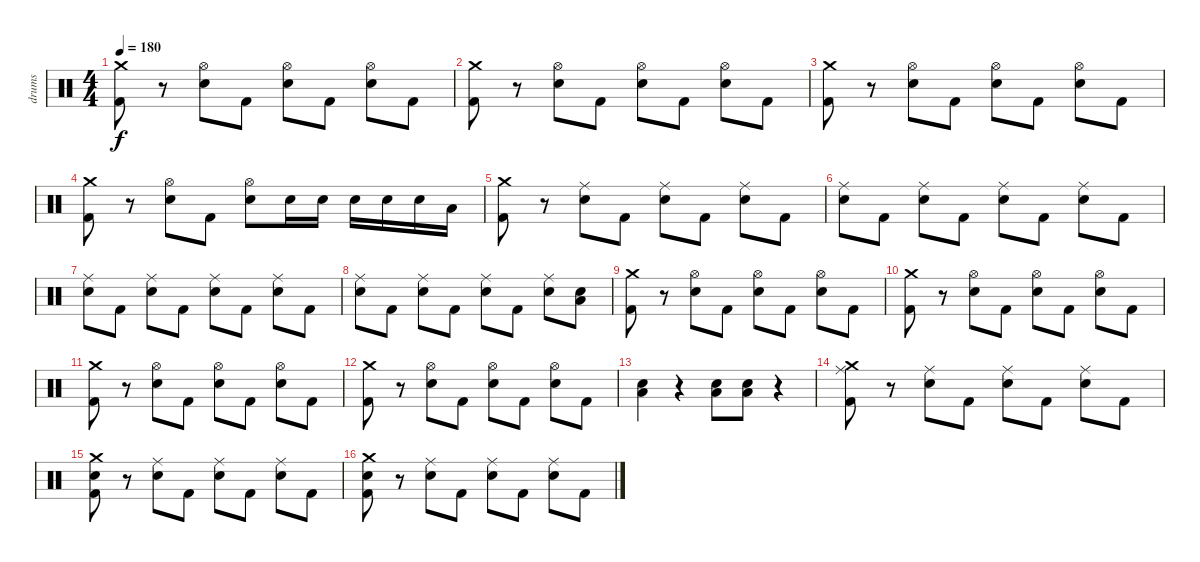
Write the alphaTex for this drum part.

\track ("drums" "drums") {instrument percussion}
\staff {score}
\articulation defaults
\ts (4 4)
\tempo 180
\clef neutral
\ks c
("Crash medium (hit)" "Kick (hit) 2").8{dy f} r.8 ("Hi-Hat (open)" "Snare (hit) 2").8 "Kick (hit) 2".8 ("Hi-Hat (open)" "Snare (hit) 2").8 "Kick (hit) 2".8 ("Hi-Hat (open)" "Snare (hit) 2").8 "Kick (hit) 2".8 |
("Crash medium (hit)" "Kick (hit) 2").8 r.8 ("Hi-Hat (open)" "Snare (hit) 2").8 "Kick (hit) 2".8 ("Hi-Hat (open)" "Snare (hit) 2").8 "Kick (hit) 2".8 ("Hi-Hat (open)" "Snare (hit) 2").8 "Kick (hit) 2".8 |
("Crash medium (hit)" "Kick (hit) 2").8 r.8 ("Hi-Hat (open)" "Snare (hit) 2").8 "Kick (hit) 2".8 ("Hi-Hat (open)" "Snare (hit) 2").8 "Kick (hit) 2".8 ("Hi-Hat (open)" "Snare (hit) 2").8 "Kick (hit) 2".8 |
("Crash medium (hit)" "Kick (hit) 2").8 r.8 ("Hi-Hat (open)" "Snare (hit) 2").8 "Kick (hit) 2".8 ("Hi-Hat (open)" "Snare (hit) 2").8 "Snare (hit) 2".16 "Snare (hit) 2".16 "Snare (hit) 2".16 "Snare (hit) 2".16 "Snare (hit) 2".16 "Low Tom (hit)".16 |
("Crash medium (hit)" "Kick (hit) 2").8 r.8 ("Ride (middle)" "Snare (hit) 2").8 "Kick (hit) 2".8 ("Ride (middle)" "Snare (hit) 2").8 "Kick (hit) 2".8 ("Ride (middle)" "Snare (hit) 2").8 "Kick (hit) 2".8 |
("Ride (middle)" "Snare (hit) 2").8 "Kick (hit) 2".8 ("Ride (middle)" "Snare (hit) 2").8 "Kick (hit) 2".8 ("Ride (middle)" "Snare (hit) 2").8 "Kick (hit) 2".8 ("Ride (middle)" "Snare (hit) 2").8 "Kick (hit) 2".8 |
("Ride (middle)" "Snare (hit) 2").8 "Kick (hit) 2".8 ("Ride (middle)" "Snare (hit) 2").8 "Kick (hit) 2".8 ("Ride (middle)" "Snare (hit) 2").8 "Kick (hit) 2".8 ("Ride (middle)" "Snare (hit) 2").8 "Kick (hit) 2".8 |
("Ride (middle)" "Snare (hit) 2").8 "Kick (hit) 2".8 ("Ride (middle)" "Snare (hit) 2").8 "Kick (hit) 2".8 ("Ride (middle)" "Snare (hit) 2").8 "Kick (hit) 2".8 ("Ride (middle)" "Snare (hit) 2").8 ("Low Floor Tom (hit)" "Snare (hit) 2").8 |
("Crash medium (hit)" "Kick (hit) 2").8 r.8 ("Hi-Hat (open)" "Snare (hit) 2").8 "Kick (hit) 2".8 ("Hi-Hat (open)" "Snare (hit) 2").8 "Kick (hit) 2".8 ("Hi-Hat (open)" "Snare (hit) 2").8 "Kick (hit) 2".8 |
("Crash medium (hit)" "Kick (hit) 2").8 r.8 ("Hi-Hat (open)" "Snare (hit) 2").8 "Kick (hit) 2".8 ("Hi-Hat (open)" "Snare (hit) 2").8 "Kick (hit) 2".8 ("Hi-Hat (open)" "Snare (hit) 2").8 "Kick (hit) 2".8 |
("Crash medium (hit)" "Kick (hit) 2").8 r.8 ("Hi-Hat (open)" "Snare (hit) 2").8 "Kick (hit) 2".8 ("Hi-Hat (open)" "Snare (hit) 2").8 "Kick (hit) 2".8 ("Hi-Hat (open)" "Snare (hit) 2").8 "Kick (hit) 2".8 |
("Crash medium (hit)" "Kick (hit) 2").8 r.8 ("Hi-Hat (open)" "Snare (hit) 2").8 "Kick (hit) 2".8 ("Hi-Hat (open)" "Snare (hit) 2").8 "Kick (hit) 2".8 ("Hi-Hat (open)" "Snare (hit) 2").8 "Kick (hit) 2".8 |
("Low Floor Tom (hit)" "Snare (hit) 2").4 r.4 ("Low Floor Tom (hit)" "Snare (hit) 2").8 ("Low Floor Tom (hit)" "Snare (hit) 2").8 r.4 |
("Crash medium (hit)" "Ride (middle)" "Kick (hit) 2").8 r.8 ("Ride (middle)" "Snare (hit) 2").8 "Kick (hit) 2".8 ("Ride (middle)" "Snare (hit) 2").8 "Kick (hit) 2".8 ("Ride (middle)" "Snare (hit) 2").8 "Kick (hit) 2".8 |
("Crash medium (hit)" "Snare (hit) 2" "Kick (hit) 2").8 r.8 ("Ride (middle)" "Snare (hit) 2").8 "Kick (hit) 2".8 ("Ride (middle)" "Snare (hit) 2").8 "Kick (hit) 2".8 ("Ride (middle)" "Snare (hit) 2").8 "Kick (hit) 2".8 |
("Crash medium (hit)" "Snare (hit) 2" "Kick (hit) 2").8 r.8 ("Ride (middle)" "Snare (hit) 2").8 "Kick (hit) 2".8 ("Ride (middle)" "Snare (hit) 2").8 "Kick (hit) 2".8 ("Ride (middle)" "Snare (hit) 2").8 "Kick (hit) 2".8
